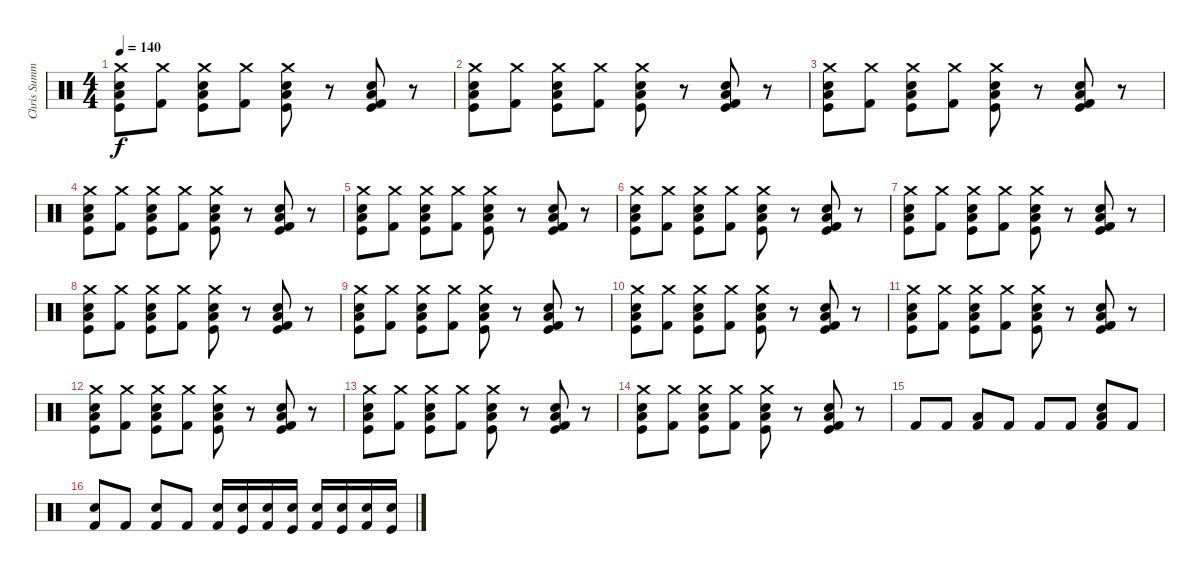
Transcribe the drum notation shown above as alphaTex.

\track ("Chris Summers" "Chris Summ") {instrument percussion}
\staff {score}
\articulation defaults
\ts (4 4)
\tempo 140
\clef neutral
\ks c
("Crash medium (hit)" "Low Floor Tom (hit)" "Snare (hit) 2" "Kick (hit)").8{dy f} ("Crash medium (hit)" "Kick (hit) 2").8 ("Crash medium (hit)" "Low Floor Tom (hit)" "Snare (hit) 2" "Kick (hit)").8 ("Crash medium (hit)" "Kick (hit) 2").8 ("Crash medium (hit)" "Low Floor Tom (hit)" "Snare (hit) 2" "Kick (hit)").8 r.8 ("Kick (hit)" "Low Floor Tom (hit)" "Snare (hit) 2" "Kick (hit) 2").8 r.8 |
("Crash medium (hit)" "Low Floor Tom (hit)" "Snare (hit) 2" "Kick (hit)").8 ("Crash medium (hit)" "Kick (hit) 2").8 ("Crash medium (hit)" "Low Floor Tom (hit)" "Snare (hit) 2" "Kick (hit)").8 ("Crash medium (hit)" "Kick (hit) 2").8 ("Crash medium (hit)" "Low Floor Tom (hit)" "Snare (hit) 2" "Kick (hit)").8 r.8 ("Kick (hit)" "Low Floor Tom (hit)" "Snare (hit) 2" "Kick (hit) 2").8 r.8 |
("Crash medium (hit)" "Low Floor Tom (hit)" "Snare (hit) 2" "Kick (hit)").8 ("Crash medium (hit)" "Kick (hit) 2").8 ("Crash medium (hit)" "Low Floor Tom (hit)" "Snare (hit) 2" "Kick (hit)").8 ("Crash medium (hit)" "Kick (hit) 2").8 ("Crash medium (hit)" "Low Floor Tom (hit)" "Snare (hit) 2" "Kick (hit)").8 r.8 ("Kick (hit)" "Low Floor Tom (hit)" "Snare (hit) 2" "Kick (hit) 2").8 r.8 |
("Crash medium (hit)" "Low Floor Tom (hit)" "Snare (hit) 2" "Kick (hit)").8 ("Crash medium (hit)" "Kick (hit) 2").8 ("Crash medium (hit)" "Low Floor Tom (hit)" "Snare (hit) 2" "Kick (hit)").8 ("Crash medium (hit)" "Kick (hit) 2").8 ("Crash medium (hit)" "Low Floor Tom (hit)" "Snare (hit) 2" "Kick (hit)").8 r.8 ("Kick (hit)" "Low Floor Tom (hit)" "Snare (hit) 2" "Kick (hit) 2").8 r.8 |
("Crash medium (hit)" "Low Floor Tom (hit)" "Snare (hit) 2" "Kick (hit)").8 ("Crash medium (hit)" "Kick (hit) 2").8 ("Crash medium (hit)" "Low Floor Tom (hit)" "Snare (hit) 2" "Kick (hit)").8 ("Crash medium (hit)" "Kick (hit) 2").8 ("Crash medium (hit)" "Low Floor Tom (hit)" "Snare (hit) 2" "Kick (hit)").8 r.8 ("Kick (hit)" "Low Floor Tom (hit)" "Snare (hit) 2" "Kick (hit) 2").8 r.8 |
("Crash medium (hit)" "Low Floor Tom (hit)" "Snare (hit) 2" "Kick (hit)").8 ("Crash medium (hit)" "Kick (hit) 2").8 ("Crash medium (hit)" "Low Floor Tom (hit)" "Snare (hit) 2" "Kick (hit)").8 ("Crash medium (hit)" "Kick (hit) 2").8 ("Crash medium (hit)" "Low Floor Tom (hit)" "Snare (hit) 2" "Kick (hit)").8 r.8 ("Kick (hit)" "Low Floor Tom (hit)" "Snare (hit) 2" "Kick (hit) 2").8 r.8 |
("Crash medium (hit)" "Low Floor Tom (hit)" "Snare (hit) 2" "Kick (hit)").8 ("Crash medium (hit)" "Kick (hit) 2").8 ("Crash medium (hit)" "Low Floor Tom (hit)" "Snare (hit) 2" "Kick (hit)").8 ("Crash medium (hit)" "Kick (hit) 2").8 ("Crash medium (hit)" "Low Floor Tom (hit)" "Snare (hit) 2" "Kick (hit)").8 r.8 ("Kick (hit)" "Low Floor Tom (hit)" "Snare (hit) 2" "Kick (hit) 2").8 r.8 |
("Crash medium (hit)" "Low Floor Tom (hit)" "Snare (hit) 2" "Kick (hit)").8 ("Crash medium (hit)" "Kick (hit) 2").8 ("Crash medium (hit)" "Low Floor Tom (hit)" "Snare (hit) 2" "Kick (hit)").8 ("Crash medium (hit)" "Kick (hit) 2").8 ("Crash medium (hit)" "Low Floor Tom (hit)" "Snare (hit) 2" "Kick (hit)").8 r.8 ("Kick (hit)" "Low Floor Tom (hit)" "Snare (hit) 2" "Kick (hit) 2").8 r.8 |
("Crash medium (hit)" "Low Floor Tom (hit)" "Snare (hit) 2" "Kick (hit)").8 ("Crash medium (hit)" "Kick (hit) 2").8 ("Crash medium (hit)" "Low Floor Tom (hit)" "Snare (hit) 2" "Kick (hit)").8 ("Crash medium (hit)" "Kick (hit) 2").8 ("Crash medium (hit)" "Low Floor Tom (hit)" "Snare (hit) 2" "Kick (hit)").8 r.8 ("Kick (hit)" "Low Floor Tom (hit)" "Snare (hit) 2" "Kick (hit) 2").8 r.8 |
("Crash medium (hit)" "Low Floor Tom (hit)" "Snare (hit) 2" "Kick (hit)").8 ("Crash medium (hit)" "Kick (hit) 2").8 ("Crash medium (hit)" "Low Floor Tom (hit)" "Snare (hit) 2" "Kick (hit)").8 ("Crash medium (hit)" "Kick (hit) 2").8 ("Crash medium (hit)" "Low Floor Tom (hit)" "Snare (hit) 2" "Kick (hit)").8 r.8 ("Kick (hit)" "Low Floor Tom (hit)" "Snare (hit) 2" "Kick (hit) 2").8 r.8 |
("Crash medium (hit)" "Low Floor Tom (hit)" "Snare (hit) 2" "Kick (hit)").8 ("Crash medium (hit)" "Kick (hit) 2").8 ("Crash medium (hit)" "Low Floor Tom (hit)" "Snare (hit) 2" "Kick (hit)").8 ("Crash medium (hit)" "Kick (hit) 2").8 ("Crash medium (hit)" "Low Floor Tom (hit)" "Snare (hit) 2" "Kick (hit)").8 r.8 ("Kick (hit)" "Low Floor Tom (hit)" "Snare (hit) 2" "Kick (hit) 2").8 r.8 |
("Crash medium (hit)" "Low Floor Tom (hit)" "Snare (hit) 2" "Kick (hit)").8 ("Crash medium (hit)" "Kick (hit) 2").8 ("Crash medium (hit)" "Low Floor Tom (hit)" "Snare (hit) 2" "Kick (hit)").8 ("Crash medium (hit)" "Kick (hit) 2").8 ("Crash medium (hit)" "Low Floor Tom (hit)" "Snare (hit) 2" "Kick (hit)").8 r.8 ("Kick (hit)" "Low Floor Tom (hit)" "Snare (hit) 2" "Kick (hit) 2").8 r.8 |
("Crash medium (hit)" "Low Floor Tom (hit)" "Snare (hit) 2" "Kick (hit)").8 ("Crash medium (hit)" "Kick (hit) 2").8 ("Crash medium (hit)" "Low Floor Tom (hit)" "Snare (hit) 2" "Kick (hit)").8 ("Crash medium (hit)" "Kick (hit) 2").8 ("Crash medium (hit)" "Low Floor Tom (hit)" "Snare (hit) 2" "Kick (hit)").8 r.8 ("Kick (hit)" "Low Floor Tom (hit)" "Snare (hit) 2" "Kick (hit) 2").8 r.8 |
("Crash medium (hit)" "Low Floor Tom (hit)" "Snare (hit) 2" "Kick (hit)").8 ("Crash medium (hit)" "Kick (hit) 2").8 ("Crash medium (hit)" "Low Floor Tom (hit)" "Snare (hit) 2" "Kick (hit)").8 ("Crash medium (hit)" "Kick (hit) 2").8 ("Crash medium (hit)" "Low Floor Tom (hit)" "Snare (hit) 2" "Kick (hit)").8 r.8 ("Kick (hit)" "Low Floor Tom (hit)" "Snare (hit) 2" "Kick (hit) 2").8 r.8 |
"Kick (hit) 2".8 "Kick (hit) 2".8 ("Low Floor Tom (hit)" "Kick (hit) 2").8 "Kick (hit) 2".8 "Kick (hit) 2".8 "Kick (hit) 2".8 ("Snare (hit) 2" "Low Floor Tom (hit)" "Kick (hit) 2").8 "Kick (hit) 2".8 |
("Snare (hit) 2" "Kick (hit) 2").8 "Kick (hit) 2".8 ("Kick (hit) 2" "Snare (hit) 2").8 "Kick (hit) 2".8 ("Snare (hit) 2" "Kick (hit) 2").16 ("Snare (hit) 2" "Kick (hit)").16 ("Snare (hit) 2" "Kick (hit) 2").16 ("Snare (hit) 2" "Kick (hit)").16 ("Snare (hit) 2" "Kick (hit) 2").16 ("Snare (hit) 2" "Kick (hit)").16 ("Snare (hit) 2" "Kick (hit) 2").16 ("Snare (hit) 2" "Kick (hit)").16
